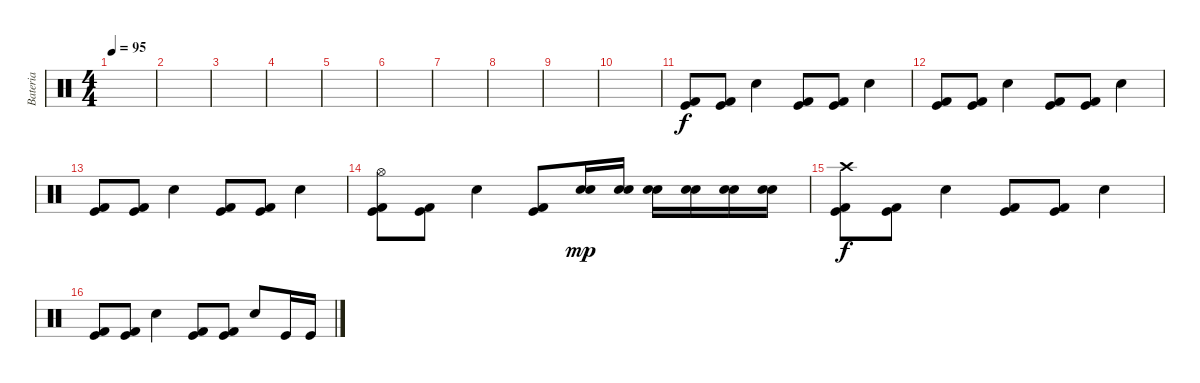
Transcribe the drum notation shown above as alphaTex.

\track ("Bateria" "Bateria") {instrument percussion}
\staff {score}
\articulation defaults
\ts (4 4)
\tempo 95
\clef neutral
\ks c
|
|
|
|
|
|
|
|
|
|
("Kick (hit)" "Kick (hit) 2").8 ("Kick (hit)" "Kick (hit) 2").8 "Electric Snare (hit)".4 ("Kick (hit)" "Kick (hit) 2").8 ("Kick (hit)" "Kick (hit) 2").8 "Electric Snare (hit)".4 |
("Kick (hit)" "Kick (hit) 2").8 ("Kick (hit)" "Kick (hit) 2").8 "Electric Snare (hit)".4 ("Kick (hit)" "Kick (hit) 2").8 ("Kick (hit)" "Kick (hit) 2").8 "Electric Snare (hit)".4 |
("Kick (hit)" "Kick (hit) 2").8 ("Kick (hit)" "Kick (hit) 2").8 "Electric Snare (hit)".4 ("Kick (hit)" "Kick (hit) 2").8 ("Kick (hit)" "Kick (hit) 2").8 "Electric Snare (hit)".4 |
("Hi-Hat (open)" "Kick (hit)" "Kick (hit) 2").8 ("Kick (hit)" "Kick (hit) 2").8 "Electric Snare (hit)".4 ("Kick (hit)" "Kick (hit) 2").8 ("Snare (hit) 2" "Electric Snare (hit)").16{dy mp} ("Snare (hit) 2" "Electric Snare (hit)").16 ("Snare (hit) 2" "Electric Snare (hit)").16 ("Snare (hit) 2" "Electric Snare (hit)").16 ("Snare (hit) 2" "Electric Snare (hit)").16 ("Snare (hit) 2" "Electric Snare (hit)").16 |
("Crash high (hit)" "Kick (hit)" "Kick (hit) 2").8{dy f} ("Kick (hit)" "Kick (hit) 2").8 "Electric Snare (hit)".4 ("Kick (hit)" "Kick (hit) 2").8 ("Kick (hit)" "Kick (hit) 2").8 "Electric Snare (hit)".4 |
("Kick (hit)" "Kick (hit) 2").8 ("Kick (hit)" "Kick (hit) 2").8 "Electric Snare (hit)".4 ("Kick (hit)" "Kick (hit) 2").8 ("Kick (hit)" "Kick (hit) 2").8 "Electric Snare (hit)".8 "Kick (hit)".16 "Kick (hit)".16
